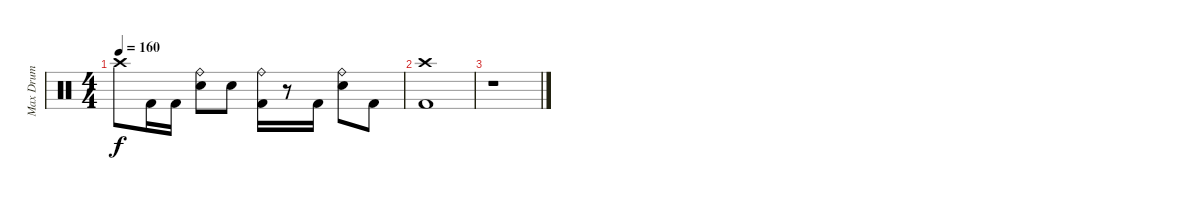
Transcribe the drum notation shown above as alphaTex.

\track ("Max Drum" "Max Drum") {instrument percussion}
\staff {score}
\articulation defaults
\ts (4 4)
\tempo 160
\clef neutral
\ks c "Crash high (hit)".8{dy f} "Kick (hit) 2".16 "Kick (hit) 2".16
("Ride (bell)" "Snare (hit) 2").8 "Snare (hit) 2".8 ("Ride (bell)" "Kick (hit) 2").16 r.8 "Kick (hit) 2".16 ("Ride (bell)" "Snare (hit) 2").8 "Kick (hit) 2".8 |
("Crash high (hit)" "Kick (hit) 2").1 |
r.1
